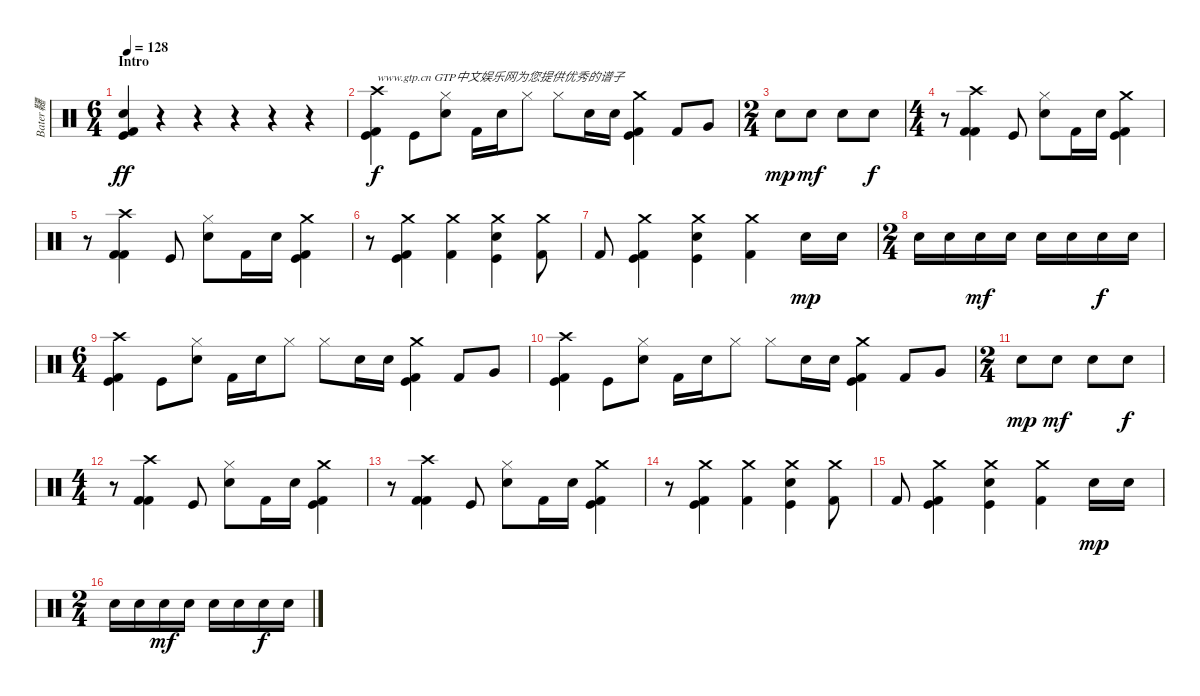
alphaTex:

\track ("Bater韆" "Bater韆") {instrument percussion}
\staff {score}
\articulation defaults
\ts (6 4)
\section ("" "Intro")
\tempo 128
\clef neutral
\ks c
("Kick (hit) 2" "Kick (hit)" "Electric Snare (hit)").4{dy ff} r.4 r.4 r.4 r.4 r.4 |
("Crash high (hit)" "Kick (hit)" "Kick (hit) 2").4{txt "www.gtp.cn GTP中文娱乐网为您提供优秀的谱子" dy f} "Kick (hit)".8 ("Hi-Hat (closed)" "Electric Snare (hit)").8 "Kick (hit) 2".16 "Snare (hit) 2".16 "Hi-Hat (closed)".8 "Hi-Hat (closed)".8 "Electric Snare (hit)".16 "Electric Snare (hit)".16 ("Crash medium (hit)" "Kick (hit)" "Kick (hit) 2").4 "Kick (hit) 2".8 "Very Low Tom (hit)".8 |
\ts (2 4)
"Electric Snare (hit)".8{dy mp} "Electric Snare (hit)".8{dy mf} "Electric Snare (hit)".8 "Electric Snare (hit)".8{dy f} |
\ts (4 4)
r.8 ("Crash high (hit)" "Kick (hit) 2" "Kick (hit) 2").4 "Kick (hit)".8 ("Hi-Hat (closed)" "Electric Snare (hit)").8 "Kick (hit) 2".16 "Snare (hit) 2".16 ("Crash medium (hit)" "Kick (hit)" "Kick (hit) 2").4 |
r.8 ("Crash high (hit)" "Kick (hit) 2" "Kick (hit) 2").4 "Kick (hit)".8 ("Hi-Hat (closed)" "Electric Snare (hit)").8 "Kick (hit) 2".16 "Snare (hit) 2".16 ("Crash medium (hit)" "Kick (hit)" "Kick (hit) 2").4 |
r.8 ("Crash medium (hit)" "Kick (hit)" "Kick (hit) 2").4 ("Crash medium (hit)" "Kick (hit) 2").4 ("Crash medium (hit)" "Electric Snare (hit)" "Kick (hit)").4 ("Crash medium (hit)" "Kick (hit) 2").8 |
"Kick (hit) 2".8 ("Crash medium (hit)" "Kick (hit)" "Kick (hit) 2").4 ("Crash medium (hit)" "Kick (hit)" "Electric Snare (hit)").4 ("Crash medium (hit)" "Kick (hit) 2").4 "Electric Snare (hit)".16{dy mp} "Electric Snare (hit)".16 |
\ts (2 4)
"Electric Snare (hit)".16 "Electric Snare (hit)".16 "Electric Snare (hit)".16{dy mf} "Electric Snare (hit)".16 "Electric Snare (hit)".16 "Electric Snare (hit)".16 "Electric Snare (hit)".16{dy f} "Electric Snare (hit)".16 |
\ts (6 4)
("Crash high (hit)" "Kick (hit)" "Kick (hit) 2").4 "Kick (hit)".8 ("Hi-Hat (closed)" "Electric Snare (hit)").8 "Kick (hit) 2".16 "Snare (hit) 2".16 "Hi-Hat (closed)".8 "Hi-Hat (closed)".8 "Electric Snare (hit)".16 "Electric Snare (hit)".16 ("Crash medium (hit)" "Kick (hit)" "Kick (hit) 2").4 "Kick (hit) 2".8 "Very Low Tom (hit)".8 |
("Crash high (hit)" "Kick (hit)" "Kick (hit) 2").4 "Kick (hit)".8 ("Hi-Hat (closed)" "Electric Snare (hit)").8 "Kick (hit) 2".16 "Snare (hit) 2".16 "Hi-Hat (closed)".8 "Hi-Hat (closed)".8 "Electric Snare (hit)".16 "Electric Snare (hit)".16 ("Crash medium (hit)" "Kick (hit)" "Kick (hit) 2").4 "Kick (hit) 2".8 "Very Low Tom (hit)".8 |
\ts (2 4)
"Electric Snare (hit)".8{dy mp} "Electric Snare (hit)".8{dy mf} "Electric Snare (hit)".8 "Electric Snare (hit)".8{dy f} |
\ts (4 4)
r.8 ("Crash high (hit)" "Kick (hit) 2" "Kick (hit) 2").4 "Kick (hit)".8 ("Hi-Hat (closed)" "Electric Snare (hit)").8 "Kick (hit) 2".16 "Snare (hit) 2".16 ("Crash medium (hit)" "Kick (hit)" "Kick (hit) 2").4 |
r.8 ("Crash high (hit)" "Kick (hit) 2" "Kick (hit) 2").4 "Kick (hit)".8 ("Hi-Hat (closed)" "Electric Snare (hit)").8 "Kick (hit) 2".16 "Snare (hit) 2".16 ("Crash medium (hit)" "Kick (hit)" "Kick (hit) 2").4 |
r.8 ("Crash medium (hit)" "Kick (hit)" "Kick (hit) 2").4 ("Crash medium (hit)" "Kick (hit) 2").4 ("Crash medium (hit)" "Electric Snare (hit)" "Kick (hit)").4 ("Crash medium (hit)" "Kick (hit) 2").8 |
"Kick (hit) 2".8 ("Crash medium (hit)" "Kick (hit)" "Kick (hit) 2").4 ("Crash medium (hit)" "Kick (hit)" "Electric Snare (hit)").4 ("Crash medium (hit)" "Kick (hit) 2").4 "Electric Snare (hit)".16{dy mp} "Electric Snare (hit)".16 |
\ts (2 4)
"Electric Snare (hit)".16 "Electric Snare (hit)".16 "Electric Snare (hit)".16{dy mf} "Electric Snare (hit)".16 "Electric Snare (hit)".16 "Electric Snare (hit)".16 "Electric Snare (hit)".16{dy f} "Electric Snare (hit)".16
